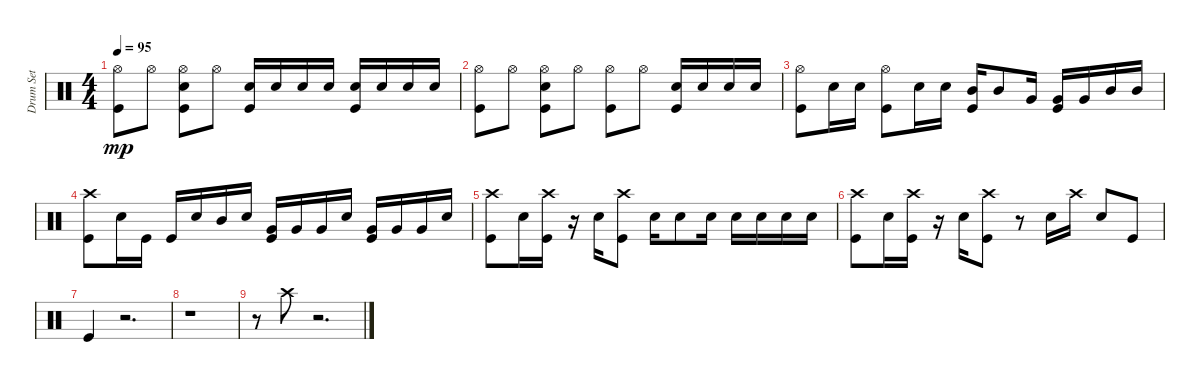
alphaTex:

\track ("Drum Set" "Drum Set") {instrument percussion}
\staff {score}
\articulation defaults
\ts (4 4)
\tempo 95
\clef neutral
\ks c
("Kick (hit)" "Hi-Hat (open)").8{dy mp} "Hi-Hat (open)".8 ("Kick (hit)" "Snare (hit) 2" "Hi-Hat (open)").8 "Hi-Hat (open)".8 ("Kick (hit)" "Snare (hit) 2").16 "Snare (hit) 2".16 "Snare (hit) 2".16 "Snare (hit) 2".16 ("Kick (hit)" "Snare (hit) 2").16 "Snare (hit) 2".16 "Snare (hit) 2".16 "Snare (hit) 2".16 |
("Kick (hit)" "Hi-Hat (open)").8 "Hi-Hat (open)".8 ("Kick (hit)" "Snare (hit) 2" "Hi-Hat (open)").8 "Hi-Hat (open)".8 ("Kick (hit)" "Hi-Hat (open)").8 "Hi-Hat (open)".8 ("Kick (hit)" "Snare (hit) 2").16 "Snare (hit) 2".16 "Snare (hit) 2".16 "Snare (hit) 2".16 |
("Kick (hit)" "Hi-Hat (open)").8 "Snare (hit) 2".16 "Snare (hit) 2".16 ("Kick (hit)" "Hi-Hat (open)").8 "Snare (hit) 2".16 "Snare (hit) 2".16 ("Kick (hit)" "Mid Tom (hit)").16 "Mid Tom (hit)".8 "Very Low Tom (hit)".16 ("Kick (hit)" "Very Low Tom (hit)").16 "Very Low Tom (hit)".16 "Mid Tom (hit)".16 "Mid Tom (hit)".16 |
("Kick (hit)" "Crash high (hit)").8 "Snare (hit) 2".16 "Kick (hit)".16 "Kick (hit)".16 "Snare (hit) 2".16 "Mid Tom (hit)".16 "Snare (hit) 2".16 ("Kick (hit)" "Very Low Tom (hit)").16 "Very Low Tom (hit)".16 "Very Low Tom (hit)".16 "Snare (hit) 2".16 ("Kick (hit)" "Very Low Tom (hit)").16 "Very Low Tom (hit)".16 "Very Low Tom (hit)".16 "Snare (hit) 2".16 |
("Kick (hit)" "Crash high (hit)").8 "Snare (hit) 2".16 ("Kick (hit)" "Crash high (hit)").16 r.16 "Snare (hit) 2".16 ("Kick (hit)" "Crash high (hit)").8 "Snare (hit) 2".16 "Snare (hit) 2".8 "Snare (hit) 2".16 "Snare (hit) 2".16 "Snare (hit) 2".16 "Snare (hit) 2".16 "Snare (hit) 2".16 |
("Kick (hit)" "Crash high (hit)").8 "Snare (hit) 2".16 ("Kick (hit)" "Crash high (hit)").16 r.16 "Snare (hit) 2".16 ("Kick (hit)" "Crash high (hit)").8 r.8 "Snare (hit) 2".16 "Crash high (hit)".16 "Snare (hit) 2".8 "Kick (hit)".8 |
"Kick (hit)".4 r.2{d} |
r.1 |
r.8 "Crash high (hit)".8 r.2{d}
